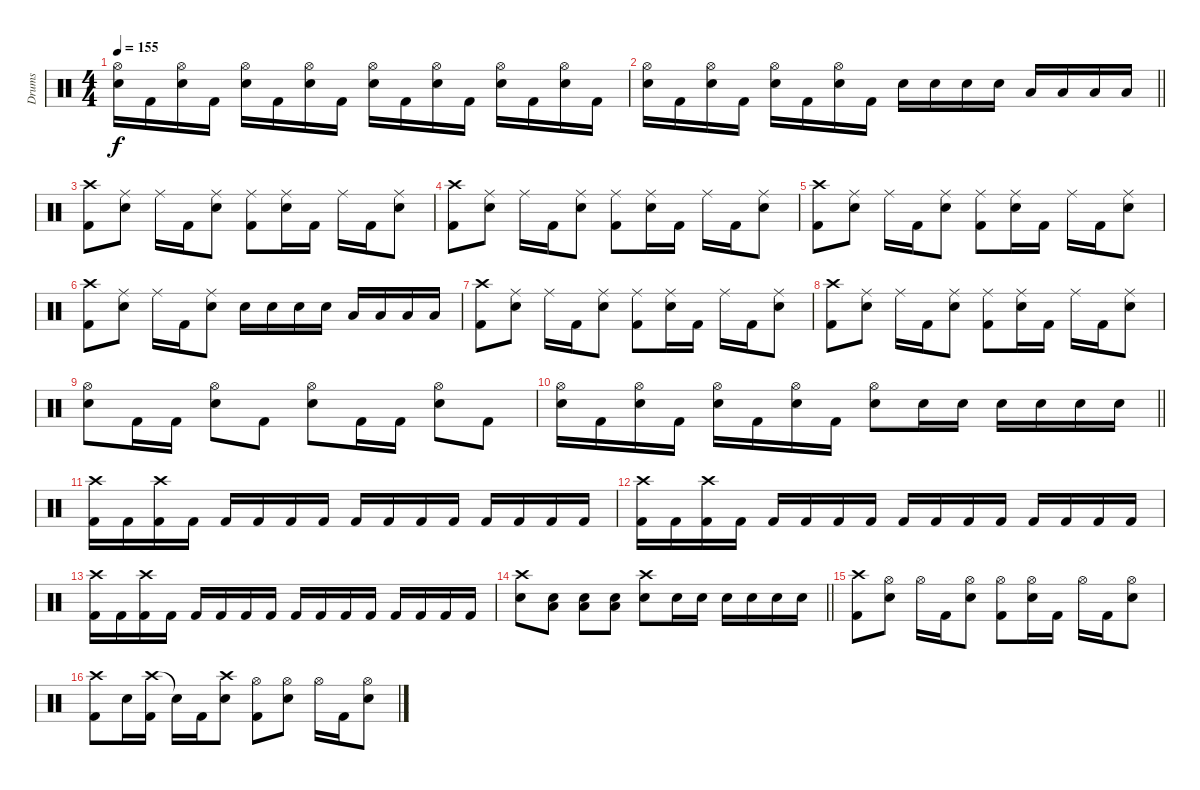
\track ("Drums" "Drums") {instrument percussion}
\staff {score}
\articulation defaults
\ts (4 4)
\tempo 155
\clef neutral
\ks c
("Hi-Hat (open)" "Snare (hit) 2").16{dy f} "Kick (hit) 2".16 ("Hi-Hat (open)" "Snare (hit) 2").16 "Kick (hit) 2".16 ("Hi-Hat (open)" "Snare (hit) 2").16 "Kick (hit) 2".16 ("Hi-Hat (open)" "Snare (hit) 2").16 "Kick (hit) 2".16 ("Hi-Hat (open)" "Snare (hit) 2").16 "Kick (hit) 2".16 ("Hi-Hat (open)" "Snare (hit) 2").16 "Kick (hit) 2".16 ("Hi-Hat (open)" "Snare (hit) 2").16 "Kick (hit) 2".16 ("Hi-Hat (open)" "Snare (hit) 2").16 "Kick (hit) 2".16 |
\barLineRight lightlight
("Hi-Hat (open)" "Snare (hit) 2").16 "Kick (hit) 2".16 ("Hi-Hat (open)" "Snare (hit) 2").16 "Kick (hit) 2".16 ("Hi-Hat (open)" "Snare (hit) 2").16 "Kick (hit) 2".16 ("Hi-Hat (open)" "Snare (hit) 2").16 "Kick (hit) 2".16 "Snare (hit) 2".16 "Snare (hit) 2".16 "Snare (hit) 2".16 "Snare (hit) 2".16 "Low Tom (hit)".16 "Low Tom (hit)".16 "Low Floor Tom (hit)".16 "Low Floor Tom (hit)".16 |
("Crash high (hit)" "Kick (hit) 2").8 ("Ride (middle)" "Snare (hit) 2").8 "Ride (middle)".16 "Kick (hit) 2".16 ("Ride (middle)" "Snare (hit) 2").8 ("Ride (middle)" "Kick (hit) 2").8 ("Ride (middle)" "Snare (hit) 2").16 "Kick (hit) 2".16 "Ride (middle)".16 "Kick (hit) 2".16 ("Ride (middle)" "Snare (hit) 2").8 |
("Crash high (hit)" "Kick (hit) 2").8 ("Ride (middle)" "Snare (hit) 2").8 "Ride (middle)".16 "Kick (hit) 2".16 ("Ride (middle)" "Snare (hit) 2").8 ("Ride (middle)" "Kick (hit) 2").8 ("Ride (middle)" "Snare (hit) 2").16 "Kick (hit) 2".16 "Ride (middle)".16 "Kick (hit) 2".16 ("Ride (middle)" "Snare (hit) 2").8 |
("Crash high (hit)" "Kick (hit) 2").8 ("Ride (middle)" "Snare (hit) 2").8 "Ride (middle)".16 "Kick (hit) 2".16 ("Ride (middle)" "Snare (hit) 2").8 ("Ride (middle)" "Kick (hit) 2").8 ("Ride (middle)" "Snare (hit) 2").16 "Kick (hit) 2".16 "Ride (middle)".16 "Kick (hit) 2".16 ("Ride (middle)" "Snare (hit) 2").8 |
("Crash high (hit)" "Kick (hit) 2").8 ("Ride (middle)" "Snare (hit) 2").8 "Ride (middle)".16 "Kick (hit) 2".16 ("Ride (middle)" "Snare (hit) 2").8 "Snare (hit) 2".16 "Snare (hit) 2".16 "Snare (hit) 2".16 "Snare (hit) 2".16 "Low Tom (hit)".16 "Low Tom (hit)".16 "Low Floor Tom (hit)".16 "Low Floor Tom (hit)".16 |
("Crash high (hit)" "Kick (hit) 2").8 ("Ride (middle)" "Snare (hit) 2").8 "Ride (middle)".16 "Kick (hit) 2".16 ("Ride (middle)" "Snare (hit) 2").8 ("Ride (middle)" "Kick (hit) 2").8 ("Ride (middle)" "Snare (hit) 2").16 "Kick (hit) 2".16 "Ride (middle)".16 "Kick (hit) 2".16 ("Ride (middle)" "Snare (hit) 2").8 |
("Crash high (hit)" "Kick (hit) 2").8 ("Ride (middle)" "Snare (hit) 2").8 "Ride (middle)".16 "Kick (hit) 2".16 ("Ride (middle)" "Snare (hit) 2").8 ("Ride (middle)" "Kick (hit) 2").8 ("Ride (middle)" "Snare (hit) 2").16 "Kick (hit) 2".16 "Ride (middle)".16 "Kick (hit) 2".16 ("Ride (middle)" "Snare (hit) 2").8 |
("Hi-Hat (open)" "Snare (hit) 2").8 "Kick (hit) 2".16 "Kick (hit) 2".16 ("Hi-Hat (open)" "Snare (hit) 2").8 "Kick (hit) 2".8 ("Hi-Hat (open)" "Snare (hit) 2").8 "Kick (hit) 2".16 "Kick (hit) 2".16 ("Hi-Hat (open)" "Snare (hit) 2").8 "Kick (hit) 2".8 |
\barLineRight lightlight
("Hi-Hat (open)" "Snare (hit) 2").16 "Kick (hit) 2".16 ("Hi-Hat (open)" "Snare (hit) 2").16 "Kick (hit) 2".16 ("Hi-Hat (open)" "Snare (hit) 2").16 "Kick (hit) 2".16 ("Hi-Hat (open)" "Snare (hit) 2").16 "Kick (hit) 2".16 ("Hi-Hat (open)" "Snare (hit) 2").8 "Snare (hit) 2".16 "Snare (hit) 2".16 "Snare (hit) 2".16 "Snare (hit) 2".16 "Snare (hit) 2".16 "Snare (hit) 2".16 |
("Crash high (hit)" "Kick (hit) 2").16 "Kick (hit) 2".16 ("Crash high (hit)" "Kick (hit) 2").16 "Kick (hit) 2".16 "Kick (hit) 2".16 "Kick (hit) 2".16 "Kick (hit) 2".16 "Kick (hit) 2".16 "Kick (hit) 2".16 "Kick (hit) 2".16 "Kick (hit) 2".16 "Kick (hit) 2".16 "Kick (hit) 2".16 "Kick (hit) 2".16 "Kick (hit) 2".16 "Kick (hit) 2".16 |
("Crash high (hit)" "Kick (hit) 2").16 "Kick (hit) 2".16 ("Crash high (hit)" "Kick (hit) 2").16 "Kick (hit) 2".16 "Kick (hit) 2".16 "Kick (hit) 2".16 "Kick (hit) 2".16 "Kick (hit) 2".16 "Kick (hit) 2".16 "Kick (hit) 2".16 "Kick (hit) 2".16 "Kick (hit) 2".16 "Kick (hit) 2".16 "Kick (hit) 2".16 "Kick (hit) 2".16 "Kick (hit) 2".16 |
("Crash high (hit)" "Kick (hit) 2").16 "Kick (hit) 2".16 ("Crash high (hit)" "Kick (hit) 2").16 "Kick (hit) 2".16 "Kick (hit) 2".16 "Kick (hit) 2".16 "Kick (hit) 2".16 "Kick (hit) 2".16 "Kick (hit) 2".16 "Kick (hit) 2".16 "Kick (hit) 2".16 "Kick (hit) 2".16 "Kick (hit) 2".16 "Kick (hit) 2".16 "Kick (hit) 2".16 "Kick (hit) 2".16 |
\barLineRight lightlight
("Crash high (hit)" "Snare (hit) 2").8 ("Snare (hit) 2" "Low Tom (hit)").8 ("Snare (hit) 2" "Low Tom (hit)").8 ("Snare (hit) 2" "Low Tom (hit)").8 ("Crash high (hit)" "Snare (hit) 2").8 "Snare (hit) 2".16 "Snare (hit) 2".16 "Snare (hit) 2".16 "Snare (hit) 2".16 "Snare (hit) 2".16 "Snare (hit) 2".16 |
("Crash high (hit)" "Kick (hit) 2").8 ("Hi-Hat (open)" "Snare (hit) 2").8 "Hi-Hat (open)".16 "Kick (hit) 2".16 ("Hi-Hat (open)" "Snare (hit) 2").8 ("Hi-Hat (open)" "Kick (hit) 2").8 ("Hi-Hat (open)" "Snare (hit) 2").16 "Kick (hit) 2".16 "Hi-Hat (open)".16 "Kick (hit) 2".16 ("Hi-Hat (open)" "Snare (hit) 2").8 |
("Crash high (hit)" "Kick (hit) 2").8 "Snare (hit) 2".16 ("Crash high (hit)" "Kick (hit) 2").16 "Snare (hit)"{t}.16 "Kick (hit) 2".16 ("Crash high (hit)" "Snare (hit) 2").8 ("Hi-Hat (open)" "Kick (hit) 2").8 ("Hi-Hat (open)" "Snare (hit) 2").8 "Hi-Hat (open)".16 "Kick (hit) 2".16 ("Hi-Hat (open)" "Snare (hit) 2").8
